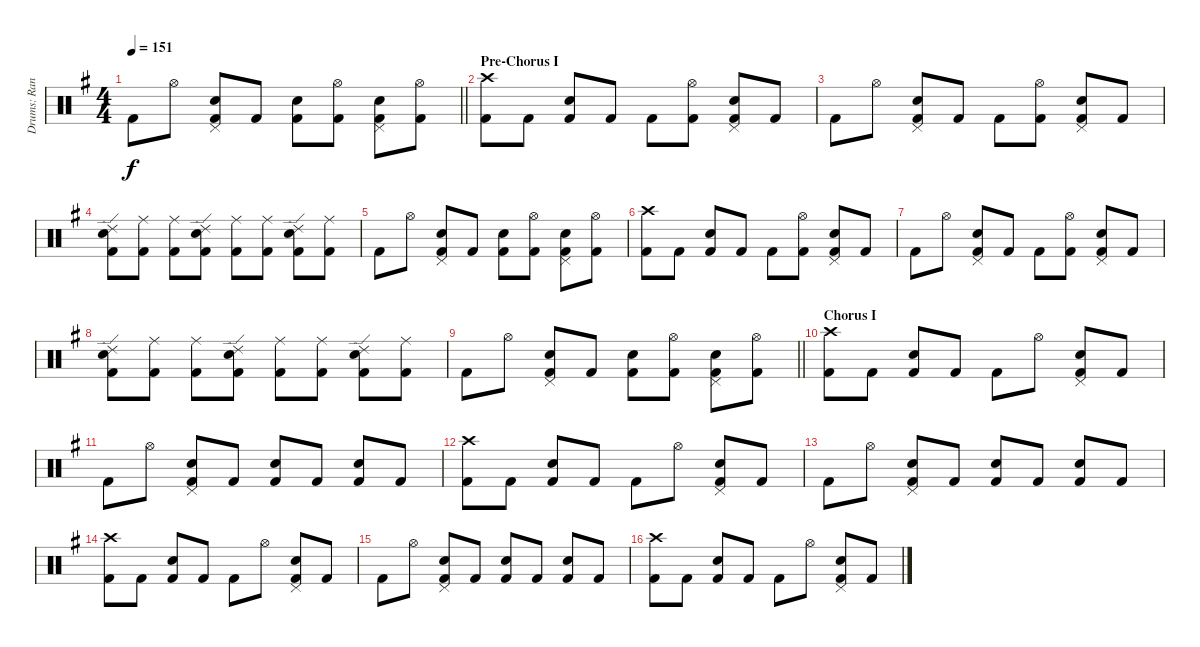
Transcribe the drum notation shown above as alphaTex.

\track ("Drums: Randy" "Drums: Ran") {instrument percussion}
\staff {score}
\articulation defaults
\ts (4 4)
\tempo 151
\clef neutral
\barLineRight lightlight
\ks g "Kick (hit) 2".8{dy f} "Hi-Hat (open)".8
("Pedal Hi-Hat (hit)" "Snare (hit) 2" "Kick (hit) 2").8 "Kick (hit) 2".8 ("Snare (hit) 2" "Kick (hit) 2").8 ("Hi-Hat (open)" "Kick (hit) 2").8 ("Pedal Hi-Hat (hit)" "Snare (hit) 2" "Kick (hit) 2").8 ("Hi-Hat (open)" "Kick (hit) 2").8 |
\section ("" "Pre-Chorus I")
("Crash high (hit)" "Kick (hit) 2").8 "Kick (hit) 2".8 ("Snare (hit) 2" "Kick (hit) 2").8 "Kick (hit) 2".8 "Kick (hit) 2".8 ("Hi-Hat (open)" "Kick (hit) 2").8 ("Pedal Hi-Hat (hit)" "Snare (hit) 2" "Kick (hit) 2").8 "Kick (hit) 2".8 |
"Kick (hit) 2".8 "Hi-Hat (open)".8 ("Pedal Hi-Hat (hit)" "Snare (hit) 2" "Kick (hit) 2").8 "Kick (hit) 2".8 "Kick (hit) 2".8 ("Hi-Hat (open)" "Kick (hit) 2").8 ("Pedal Hi-Hat (hit)" "Snare (hit) 2" "Kick (hit) 2").8 "Kick (hit) 2".8 |
("Ride (edge) 2" "Snare (hit) 2" "Kick (hit) 2").8 ("Ride (middle)" "Kick (hit) 2").8 ("Ride (middle)" "Kick (hit) 2").8 ("Ride (edge) 2" "Snare (hit) 2" "Kick (hit) 2").8 ("Ride (middle)" "Kick (hit) 2").8 ("Ride (middle)" "Kick (hit) 2").8 ("Ride (edge) 2" "Snare (hit) 2" "Kick (hit) 2").8 ("Ride (middle)" "Kick (hit) 2").8 |
"Kick (hit) 2".8 "Hi-Hat (open)".8 ("Pedal Hi-Hat (hit)" "Snare (hit) 2" "Kick (hit) 2").8 "Kick (hit) 2".8 ("Snare (hit) 2" "Kick (hit) 2").8 ("Hi-Hat (open)" "Kick (hit) 2").8 ("Pedal Hi-Hat (hit)" "Snare (hit) 2" "Kick (hit) 2").8 ("Hi-Hat (open)" "Kick (hit) 2").8 |
("Crash high (hit)" "Kick (hit) 2").8 "Kick (hit) 2".8 ("Snare (hit) 2" "Kick (hit) 2").8 "Kick (hit) 2".8 "Kick (hit) 2".8 ("Hi-Hat (open)" "Kick (hit) 2").8 ("Pedal Hi-Hat (hit)" "Snare (hit) 2" "Kick (hit) 2").8 "Kick (hit) 2".8 |
"Kick (hit) 2".8 "Hi-Hat (open)".8 ("Pedal Hi-Hat (hit)" "Snare (hit) 2" "Kick (hit) 2").8 "Kick (hit) 2".8 "Kick (hit) 2".8 ("Hi-Hat (open)" "Kick (hit) 2").8 ("Pedal Hi-Hat (hit)" "Snare (hit) 2" "Kick (hit) 2").8 "Kick (hit) 2".8 |
("Ride (edge) 2" "Snare (hit) 2" "Kick (hit) 2").8 ("Ride (middle)" "Kick (hit) 2").8 ("Ride (middle)" "Kick (hit) 2").8 ("Ride (edge) 2" "Snare (hit) 2" "Kick (hit) 2").8 ("Ride (middle)" "Kick (hit) 2").8 ("Ride (middle)" "Kick (hit) 2").8 ("Ride (edge) 2" "Snare (hit) 2" "Kick (hit) 2").8 ("Ride (middle)" "Kick (hit) 2").8 |
\barLineRight lightlight "Kick (hit) 2".8 "Hi-Hat (open)".8
("Pedal Hi-Hat (hit)" "Snare (hit) 2" "Kick (hit) 2").8 "Kick (hit) 2".8 ("Snare (hit) 2" "Kick (hit) 2").8 ("Hi-Hat (open)" "Kick (hit) 2").8 ("Pedal Hi-Hat (hit)" "Snare (hit) 2" "Kick (hit) 2").8 ("Hi-Hat (open)" "Kick (hit) 2").8 |
\section ("" "Chorus I")
("Crash high (hit)" "Kick (hit) 2").8 "Kick (hit) 2".8 ("Snare (hit) 2" "Kick (hit) 2").8 "Kick (hit) 2".8 "Kick (hit) 2".8 "Hi-Hat (open)".8 ("Pedal Hi-Hat (hit)" "Snare (hit) 2" "Kick (hit) 2").8 "Kick (hit) 2".8 |
"Kick (hit) 2".8 "Hi-Hat (open)".8 ("Pedal Hi-Hat (hit)" "Snare (hit) 2" "Kick (hit) 2").8 "Kick (hit) 2".8 ("Snare (hit) 2" "Kick (hit) 2").8 "Kick (hit) 2".8 ("Snare (hit) 2" "Kick (hit) 2").8 "Kick (hit) 2".8 |
("Crash high (hit)" "Kick (hit) 2").8 "Kick (hit) 2".8 ("Snare (hit) 2" "Kick (hit) 2").8 "Kick (hit) 2".8 "Kick (hit) 2".8 "Hi-Hat (open)".8 ("Pedal Hi-Hat (hit)" "Snare (hit) 2" "Kick (hit) 2").8 "Kick (hit) 2".8 |
"Kick (hit) 2".8 "Hi-Hat (open)".8 ("Pedal Hi-Hat (hit)" "Snare (hit) 2" "Kick (hit) 2").8 "Kick (hit) 2".8 ("Snare (hit) 2" "Kick (hit) 2").8 "Kick (hit) 2".8 ("Snare (hit) 2" "Kick (hit) 2").8 "Kick (hit) 2".8 |
("Crash high (hit)" "Kick (hit) 2").8 "Kick (hit) 2".8 ("Snare (hit) 2" "Kick (hit) 2").8 "Kick (hit) 2".8 "Kick (hit) 2".8 "Hi-Hat (open)".8 ("Pedal Hi-Hat (hit)" "Snare (hit) 2" "Kick (hit) 2").8 "Kick (hit) 2".8 |
"Kick (hit) 2".8 "Hi-Hat (open)".8 ("Pedal Hi-Hat (hit)" "Snare (hit) 2" "Kick (hit) 2").8 "Kick (hit) 2".8 ("Snare (hit) 2" "Kick (hit) 2").8 "Kick (hit) 2".8 ("Snare (hit) 2" "Kick (hit) 2").8 "Kick (hit) 2".8 |
("Crash high (hit)" "Kick (hit) 2").8 "Kick (hit) 2".8 ("Snare (hit) 2" "Kick (hit) 2").8 "Kick (hit) 2".8 "Kick (hit) 2".8 "Hi-Hat (open)".8 ("Pedal Hi-Hat (hit)" "Snare (hit) 2" "Kick (hit) 2").8 "Kick (hit) 2".8
